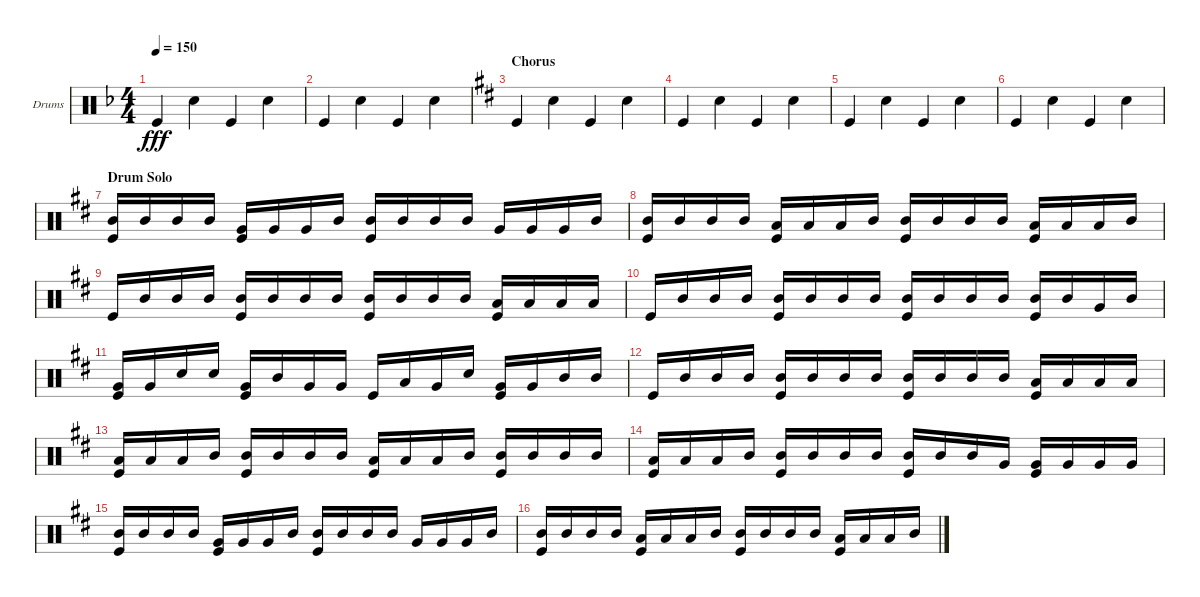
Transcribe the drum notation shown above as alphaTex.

\defaultSystemsLayout 4
\bracketExtendMode groupsimilarinstruments
\firstSystemTrackNameOrientation horizontal
\otherSystemsTrackNameOrientation horizontal
\track ("Drumkit" "Drums") {instrument percussion}
\staff {score}
\articulation defaults
\ts (4 4)
\tempo 150
\clef neutral
\scale
0.333333
\ks f "Kick (hit)".4{dy fff} "Snare (hit) 2".4 "Kick (hit)".4 "Snare (hit) 2".4
|
\scale
0.257919 "Kick (hit)".4 "Snare (hit) 2".4 "Kick (hit)".4 "Snare (hit) 2".4 |
\section ("" "Chorus")
\scale
0.484163
\ks d "Kick (hit)".4 "Snare (hit) 2".4 "Kick (hit)".4 "Snare (hit) 2".4
|
\scale
0.257919 "Kick (hit)".4 "Snare (hit) 2".4 "Kick (hit)".4 "Snare (hit) 2".4 |
\scale
0.333333 "Kick (hit)".4 "Snare (hit) 2".4 "Kick (hit)".4 "Snare (hit) 2".4 |
\scale
0.333333 "Kick (hit)".4 "Snare (hit) 2".4 "Kick (hit)".4 "Snare (hit) 2".4 |
\section ("" "Drum Solo")
\scale
0.333333 ("Mid Tom (hit)" "Kick (hit)").16 "Mid Tom (hit)".16 "Mid Tom (hit)".16 "Mid Tom (hit)".16 ("Very Low Tom (hit)" "Kick (hit)").16 "Very Low Tom (hit)".16 "Very Low Tom (hit)".16 "Mid Tom (hit)".16 ("Mid Tom (hit)" "Kick (hit)").16 "Mid Tom (hit)".16 "Mid Tom (hit)".16 "Mid Tom (hit)".16 "Very Low Tom (hit)".16 "Very Low Tom (hit)".16 "Very Low Tom (hit)".16 "Mid Tom (hit)".16 |
\scale
0.333333 ("Mid Tom (hit)" "Kick (hit)").16 "Mid Tom (hit)".16 "Mid Tom (hit)".16 "Mid Tom (hit)".16 ("Low Tom (hit)" "Kick (hit)").16 "Low Tom (hit)".16 "Low Tom (hit)".16 "Mid Tom (hit)".16 ("Mid Tom (hit)" "Kick (hit)").16 "Mid Tom (hit)".16 "Mid Tom (hit)".16 "Mid Tom (hit)".16 ("Low Tom (hit)" "Kick (hit)").16 "Low Tom (hit)".16 "Low Tom (hit)".16 "Mid Tom (hit)".16 |
\scale
0.333333 "Kick (hit)".16 "Mid Tom (hit)".16 "Mid Tom (hit)".16 "Mid Tom (hit)".16 ("Mid Tom (hit)" "Kick (hit)").16 "Mid Tom (hit)".16 "Mid Tom (hit)".16 "Mid Tom (hit)".16 ("Mid Tom (hit)" "Kick (hit)").16 "Mid Tom (hit)".16 "Mid Tom (hit)".16 "Mid Tom (hit)".16 ("Low Tom (hit)" "Kick (hit)").16 "Low Tom (hit)".16 "Low Tom (hit)".16 "Low Tom (hit)".16 |
\scale
0.333333 "Kick (hit)".16 "Mid Tom (hit)".16 "Mid Tom (hit)".16 "Mid Tom (hit)".16 ("Mid Tom (hit)" "Kick (hit)").16 "Mid Tom (hit)".16 "Mid Tom (hit)".16 "Mid Tom (hit)".16 ("Mid Tom (hit)" "Kick (hit)").16 "Mid Tom (hit)".16 "Mid Tom (hit)".16 "Mid Tom (hit)".16 ("Mid Tom (hit)" "Kick (hit)").16 "Mid Tom (hit)".16 "Very Low Tom (hit)".16 "Mid Tom (hit)".16 |
\scale
0.333333 ("Very Low Tom (hit)" "Kick (hit)").16 "Very Low Tom (hit)".16 "Snare (hit) 2".16 "Snare (hit) 2".16 ("Very Low Tom (hit)" "Kick (hit)").16 "Mid Tom (hit)".16 "Very Low Tom (hit)".16 "Very Low Tom (hit)".16 "Kick (hit)".16 "Low Tom (hit)".16 "Very Low Tom (hit)".16 "Snare (hit) 2".16 ("Very Low Tom (hit)" "Kick (hit)").16 "Very Low Tom (hit)".16 "Mid Tom (hit)".16 "Mid Tom (hit)".16 |
\scale
0.333333 "Kick (hit)".16 "Mid Tom (hit)".16 "Mid Tom (hit)".16 "Mid Tom (hit)".16 ("Mid Tom (hit)" "Kick (hit)").16 "Mid Tom (hit)".16 "Mid Tom (hit)".16 "Mid Tom (hit)".16 ("Mid Tom (hit)" "Kick (hit)").16 "Mid Tom (hit)".16 "Mid Tom (hit)".16 "Mid Tom (hit)".16 ("Low Tom (hit)" "Kick (hit)").16 "Low Tom (hit)".16 "Low Tom (hit)".16 "Low Tom (hit)".16 |
\scale
0.333333 ("Low Tom (hit)" "Kick (hit)").16 "Low Tom (hit)".16 "Low Tom (hit)".16 "Mid Tom (hit)".16 ("Mid Tom (hit)" "Kick (hit)").16 "Mid Tom (hit)".16 "Mid Tom (hit)".16 "Mid Tom (hit)".16 ("Low Tom (hit)" "Kick (hit)").16 "Low Tom (hit)".16 "Low Tom (hit)".16 "Mid Tom (hit)".16 ("Mid Tom (hit)" "Kick (hit)").16 "Mid Tom (hit)".16 "Mid Tom (hit)".16 "Mid Tom (hit)".16 |
\scale
0.333333 ("Low Tom (hit)" "Kick (hit)").16 "Low Tom (hit)".16 "Low Tom (hit)".16 "Mid Tom (hit)".16 ("Mid Tom (hit)" "Kick (hit)").16 "Mid Tom (hit)".16 "Mid Tom (hit)".16 "Mid Tom (hit)".16 ("Mid Tom (hit)" "Kick (hit)").16 "Mid Tom (hit)".16 "Mid Tom (hit)".16 "Very Low Tom (hit)".16 ("Very Low Tom (hit)" "Kick (hit)").16 "Very Low Tom (hit)".16 "Very Low Tom (hit)".16 "Very Low Tom (hit)".16 |
\scale
0.333333 ("Mid Tom (hit)" "Kick (hit)").16 "Mid Tom (hit)".16 "Mid Tom (hit)".16 "Mid Tom (hit)".16 ("Very Low Tom (hit)" "Kick (hit)").16 "Very Low Tom (hit)".16 "Very Low Tom (hit)".16 "Mid Tom (hit)".16 ("Mid Tom (hit)" "Kick (hit)").16 "Mid Tom (hit)".16 "Mid Tom (hit)".16 "Mid Tom (hit)".16 "Very Low Tom (hit)".16 "Very Low Tom (hit)".16 "Very Low Tom (hit)".16 "Mid Tom (hit)".16 |
\scale
0.333333 ("Mid Tom (hit)" "Kick (hit)").16 "Mid Tom (hit)".16 "Mid Tom (hit)".16 "Mid Tom (hit)".16 ("Low Tom (hit)" "Kick (hit)").16 "Low Tom (hit)".16 "Low Tom (hit)".16 "Mid Tom (hit)".16 ("Mid Tom (hit)" "Kick (hit)").16 "Mid Tom (hit)".16 "Mid Tom (hit)".16 "Mid Tom (hit)".16 ("Low Tom (hit)" "Kick (hit)").16 "Low Tom (hit)".16 "Low Tom (hit)".16 "Mid Tom (hit)".16
